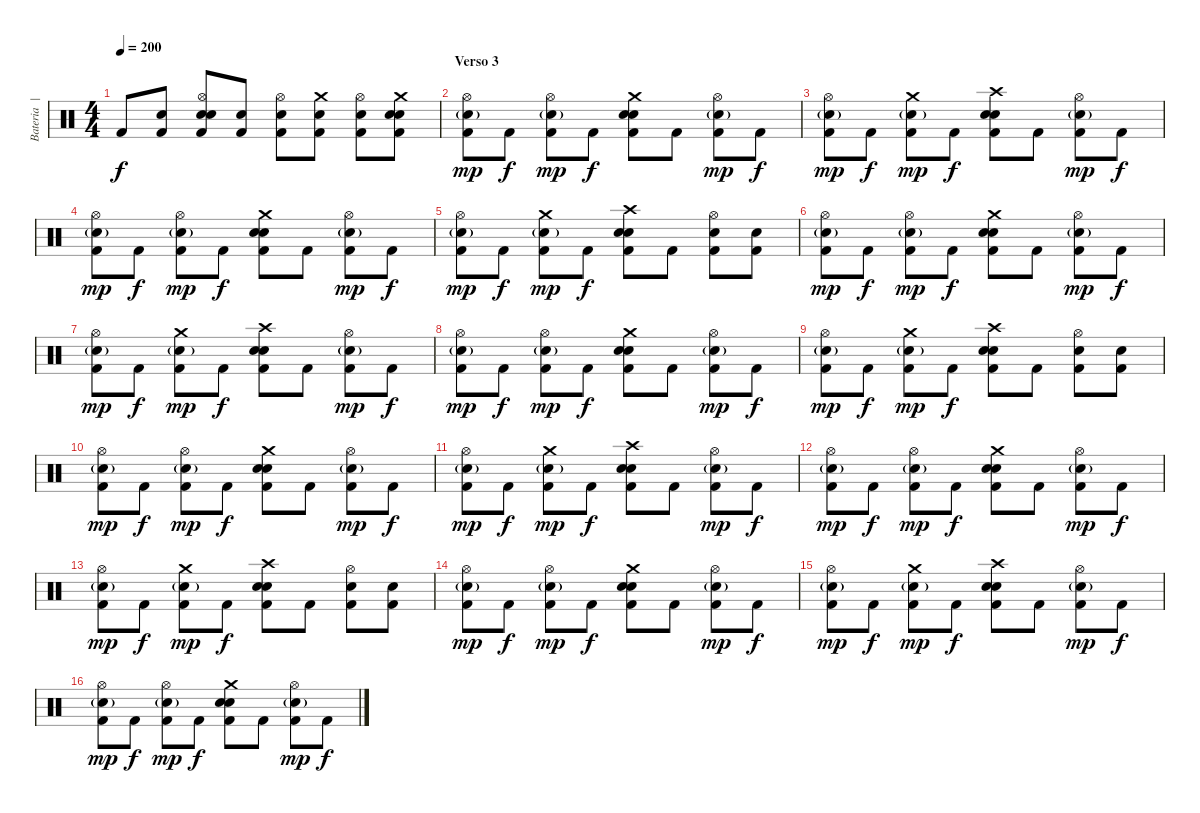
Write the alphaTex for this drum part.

\track ("Bateria  | Nô" "Bateria  |") {instrument percussion}
\staff {score}
\articulation defaults
\ts (4 4)
\tempo 200
\clef neutral
\ks c "Kick (hit) 2".8{dy f}
("Electric Snare (hit)" "Kick (hit) 2").8 ("Hi-Hat (open)" "Electric Snare (hit)" "Snare (hit) 2" "Kick (hit) 2").8 ("Electric Snare (hit)" "Kick (hit) 2").8 ("Hi-Hat (open)" "Electric Snare (hit)" "Kick (hit) 2").8 ("Crash medium (hit)" "Electric Snare (hit)" "Kick (hit) 2").8 ("Hi-Hat (open)" "Electric Snare (hit)" "Kick (hit) 2").8 ("Crash medium (hit)" "Snare (hit) 2" "Electric Snare (hit)" "Kick (hit) 2").8 |
\section ("" "Verso 3")
("Hi-Hat (open)" "Electric Snare (hit)"{g} "Kick (hit) 2").8{dy mp} "Kick (hit) 2".8{dy f} ("Hi-Hat (open)" "Electric Snare (hit)"{g} "Kick (hit) 2").8{dy mp} "Kick (hit) 2".8{dy f} ("Crash medium (hit)" "Electric Snare (hit)" "Snare (hit) 2" "Kick (hit) 2").8 "Kick (hit) 2".8 ("Hi-Hat (open)" "Electric Snare (hit)"{g} "Kick (hit) 2").8{dy mp} "Kick (hit) 2".8{dy f} |
("Hi-Hat (open)" "Electric Snare (hit)"{g} "Kick (hit) 2").8{dy mp} "Kick (hit) 2".8{dy f} ("Crash medium (hit)" "Electric Snare (hit)"{g} "Kick (hit) 2").8{dy mp} "Kick (hit) 2".8{dy f} ("Crash high (hit)" "Electric Snare (hit)" "Snare (hit) 2" "Kick (hit) 2").8 "Kick (hit) 2".8 ("Hi-Hat (open)" "Electric Snare (hit)"{g} "Kick (hit) 2").8{dy mp} "Kick (hit) 2".8{dy f} |
("Hi-Hat (open)" "Electric Snare (hit)"{g} "Kick (hit) 2").8{dy mp} "Kick (hit) 2".8{dy f} ("Hi-Hat (open)" "Electric Snare (hit)"{g} "Kick (hit) 2").8{dy mp} "Kick (hit) 2".8{dy f} ("Crash medium (hit)" "Electric Snare (hit)" "Snare (hit) 2" "Kick (hit) 2").8 "Kick (hit) 2".8 ("Hi-Hat (open)" "Electric Snare (hit)"{g} "Kick (hit) 2").8{dy mp} "Kick (hit) 2".8{dy f} |
("Hi-Hat (open)" "Electric Snare (hit)"{g} "Kick (hit) 2").8{dy mp} "Kick (hit) 2".8{dy f} ("Crash medium (hit)" "Electric Snare (hit)"{g} "Kick (hit) 2").8{dy mp} "Kick (hit) 2".8{dy f} ("Crash high (hit)" "Electric Snare (hit)" "Snare (hit) 2" "Kick (hit) 2").8 "Kick (hit) 2".8 ("Hi-Hat (open)" "Electric Snare (hit)" "Kick (hit) 2").8 ("Electric Snare (hit)" "Kick (hit) 2").8 |
("Hi-Hat (open)" "Electric Snare (hit)"{g} "Kick (hit) 2").8{dy mp} "Kick (hit) 2".8{dy f} ("Hi-Hat (open)" "Electric Snare (hit)"{g} "Kick (hit) 2").8{dy mp} "Kick (hit) 2".8{dy f} ("Crash medium (hit)" "Electric Snare (hit)" "Snare (hit) 2" "Kick (hit) 2").8 "Kick (hit) 2".8 ("Hi-Hat (open)" "Electric Snare (hit)"{g} "Kick (hit) 2").8{dy mp} "Kick (hit) 2".8{dy f} |
("Hi-Hat (open)" "Electric Snare (hit)"{g} "Kick (hit) 2").8{dy mp} "Kick (hit) 2".8{dy f} ("Crash medium (hit)" "Electric Snare (hit)"{g} "Kick (hit) 2").8{dy mp} "Kick (hit) 2".8{dy f} ("Crash high (hit)" "Electric Snare (hit)" "Snare (hit) 2" "Kick (hit) 2").8 "Kick (hit) 2".8 ("Hi-Hat (open)" "Electric Snare (hit)"{g} "Kick (hit) 2").8{dy mp} "Kick (hit) 2".8{dy f} |
("Hi-Hat (open)" "Electric Snare (hit)"{g} "Kick (hit) 2").8{dy mp} "Kick (hit) 2".8{dy f} ("Hi-Hat (open)" "Electric Snare (hit)"{g} "Kick (hit) 2").8{dy mp} "Kick (hit) 2".8{dy f} ("Crash medium (hit)" "Electric Snare (hit)" "Snare (hit) 2" "Kick (hit) 2").8 "Kick (hit) 2".8 ("Hi-Hat (open)" "Electric Snare (hit)"{g} "Kick (hit) 2").8{dy mp} "Kick (hit) 2".8{dy f} |
("Hi-Hat (open)" "Electric Snare (hit)"{g} "Kick (hit) 2").8{dy mp} "Kick (hit) 2".8{dy f} ("Crash medium (hit)" "Electric Snare (hit)"{g} "Kick (hit) 2").8{dy mp} "Kick (hit) 2".8{dy f} ("Crash high (hit)" "Electric Snare (hit)" "Snare (hit) 2" "Kick (hit) 2").8 "Kick (hit) 2".8 ("Hi-Hat (open)" "Electric Snare (hit)" "Kick (hit) 2").8 ("Electric Snare (hit)" "Kick (hit) 2").8 |
("Hi-Hat (open)" "Electric Snare (hit)"{g} "Kick (hit) 2").8{dy mp} "Kick (hit) 2".8{dy f} ("Hi-Hat (open)" "Electric Snare (hit)"{g} "Kick (hit) 2").8{dy mp} "Kick (hit) 2".8{dy f} ("Crash medium (hit)" "Electric Snare (hit)" "Snare (hit) 2" "Kick (hit) 2").8 "Kick (hit) 2".8 ("Hi-Hat (open)" "Electric Snare (hit)"{g} "Kick (hit) 2").8{dy mp} "Kick (hit) 2".8{dy f} |
("Hi-Hat (open)" "Electric Snare (hit)"{g} "Kick (hit) 2").8{dy mp} "Kick (hit) 2".8{dy f} ("Crash medium (hit)" "Electric Snare (hit)"{g} "Kick (hit) 2").8{dy mp} "Kick (hit) 2".8{dy f} ("Crash high (hit)" "Electric Snare (hit)" "Snare (hit) 2" "Kick (hit) 2").8 "Kick (hit) 2".8 ("Hi-Hat (open)" "Electric Snare (hit)"{g} "Kick (hit) 2").8{dy mp} "Kick (hit) 2".8{dy f} |
("Hi-Hat (open)" "Electric Snare (hit)"{g} "Kick (hit) 2").8{dy mp} "Kick (hit) 2".8{dy f} ("Hi-Hat (open)" "Electric Snare (hit)"{g} "Kick (hit) 2").8{dy mp} "Kick (hit) 2".8{dy f} ("Crash medium (hit)" "Electric Snare (hit)" "Snare (hit) 2" "Kick (hit) 2").8 "Kick (hit) 2".8 ("Hi-Hat (open)" "Electric Snare (hit)"{g} "Kick (hit) 2").8{dy mp} "Kick (hit) 2".8{dy f} |
("Hi-Hat (open)" "Electric Snare (hit)"{g} "Kick (hit) 2").8{dy mp} "Kick (hit) 2".8{dy f} ("Crash medium (hit)" "Electric Snare (hit)"{g} "Kick (hit) 2").8{dy mp} "Kick (hit) 2".8{dy f} ("Crash high (hit)" "Electric Snare (hit)" "Snare (hit) 2" "Kick (hit) 2").8 "Kick (hit) 2".8 ("Hi-Hat (open)" "Electric Snare (hit)" "Kick (hit) 2").8 ("Electric Snare (hit)" "Kick (hit) 2").8 |
("Hi-Hat (open)" "Electric Snare (hit)"{g} "Kick (hit) 2").8{dy mp} "Kick (hit) 2".8{dy f} ("Hi-Hat (open)" "Electric Snare (hit)"{g} "Kick (hit) 2").8{dy mp} "Kick (hit) 2".8{dy f} ("Crash medium (hit)" "Electric Snare (hit)" "Snare (hit) 2" "Kick (hit) 2").8 "Kick (hit) 2".8 ("Hi-Hat (open)" "Electric Snare (hit)"{g} "Kick (hit) 2").8{dy mp} "Kick (hit) 2".8{dy f} |
("Hi-Hat (open)" "Electric Snare (hit)"{g} "Kick (hit) 2").8{dy mp} "Kick (hit) 2".8{dy f} ("Crash medium (hit)" "Electric Snare (hit)"{g} "Kick (hit) 2").8{dy mp} "Kick (hit) 2".8{dy f} ("Crash high (hit)" "Electric Snare (hit)" "Snare (hit) 2" "Kick (hit) 2").8 "Kick (hit) 2".8 ("Hi-Hat (open)" "Electric Snare (hit)"{g} "Kick (hit) 2").8{dy mp} "Kick (hit) 2".8{dy f} |
("Hi-Hat (open)" "Electric Snare (hit)"{g} "Kick (hit) 2").8{dy mp} "Kick (hit) 2".8{dy f} ("Hi-Hat (open)" "Electric Snare (hit)"{g} "Kick (hit) 2").8{dy mp} "Kick (hit) 2".8{dy f} ("Crash medium (hit)" "Electric Snare (hit)" "Snare (hit) 2" "Kick (hit) 2").8 "Kick (hit) 2".8 ("Hi-Hat (open)" "Electric Snare (hit)"{g} "Kick (hit) 2").8{dy mp} "Kick (hit) 2".8{dy f}
